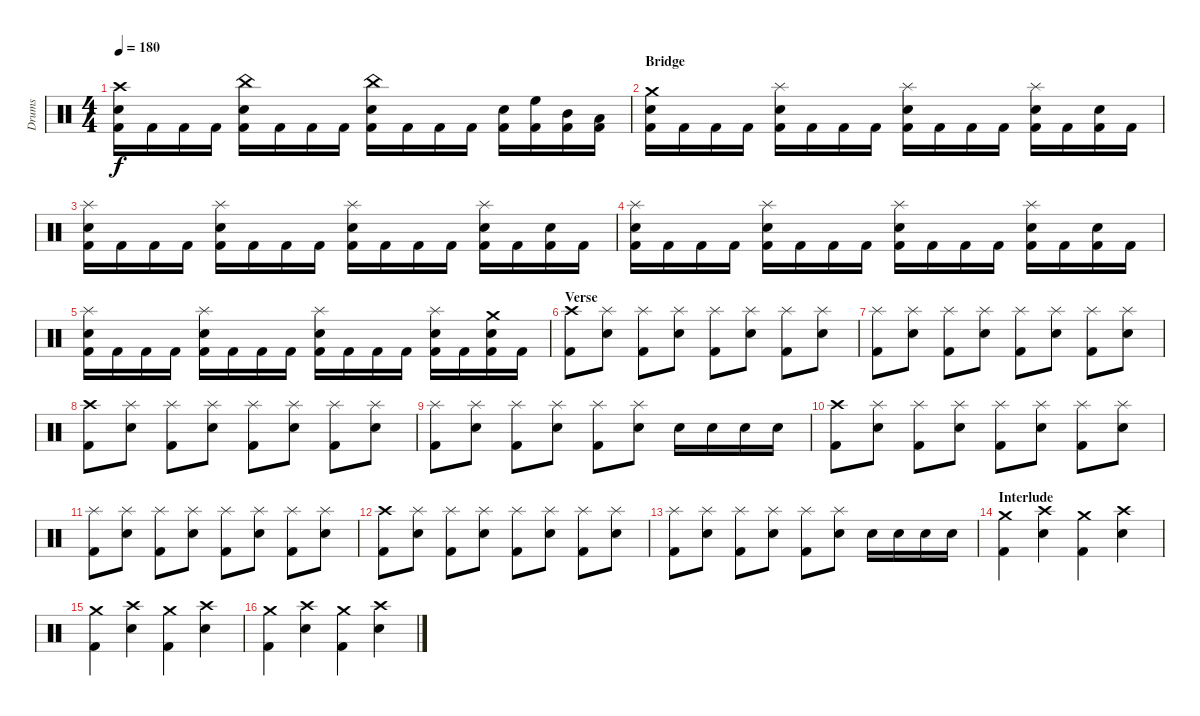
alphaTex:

\track ("Drums" "Drums") {instrument percussion}
\staff {score}
\articulation defaults
\ts (4 4)
\tempo 180
\clef neutral
\ks c
("Crash high (hit)" "Electric Snare (hit)" "Kick (hit) 2").16{dy f} "Kick (hit) 2".16 "Kick (hit) 2".16 "Kick (hit) 2".16 ("China (hit)" "Electric Snare (hit)" "Kick (hit) 2").16 "Kick (hit) 2".16 "Kick (hit) 2".16 "Kick (hit) 2".16 ("China (hit)" "Electric Snare (hit)" "Kick (hit) 2").16 "Kick (hit) 2".16 "Kick (hit) 2".16 "Kick (hit) 2".16 ("Electric Snare (hit)" "Kick (hit) 2").16 ("High Floor Tom (hit)" "Kick (hit) 2").16 ("Mid Tom (hit)" "Kick (hit) 2").16 ("Low Tom (hit)" "Kick (hit) 2").16 |
\section ("" "Bridge")
("Crash medium (hit)" "Electric Snare (hit)" "Kick (hit) 2").16 "Kick (hit) 2".16 "Kick (hit) 2".16 "Kick (hit) 2".16 ("Splash (hit)" "Electric Snare (hit)" "Kick (hit) 2").16 "Kick (hit) 2".16 "Kick (hit) 2".16 "Kick (hit) 2".16 ("Splash (hit)" "Electric Snare (hit)" "Kick (hit) 2").16 "Kick (hit) 2".16 "Kick (hit) 2".16 "Kick (hit) 2".16 ("Splash (hit)" "Electric Snare (hit)" "Kick (hit) 2").16 "Kick (hit) 2".16 ("Electric Snare (hit)" "Kick (hit) 2").16 "Kick (hit) 2".16 |
("Splash (hit)" "Electric Snare (hit)" "Kick (hit) 2").16 "Kick (hit) 2".16 "Kick (hit) 2".16 "Kick (hit) 2".16 ("Splash (hit)" "Electric Snare (hit)" "Kick (hit) 2").16 "Kick (hit) 2".16 "Kick (hit) 2".16 "Kick (hit) 2".16 ("Splash (hit)" "Electric Snare (hit)" "Kick (hit) 2").16 "Kick (hit) 2".16 "Kick (hit) 2".16 "Kick (hit) 2".16 ("Splash (hit)" "Electric Snare (hit)" "Kick (hit) 2").16 "Kick (hit) 2".16 ("Electric Snare (hit)" "Kick (hit) 2").16 "Kick (hit) 2".16 |
("Splash (hit)" "Electric Snare (hit)" "Kick (hit) 2").16 "Kick (hit) 2".16 "Kick (hit) 2".16 "Kick (hit) 2".16 ("Splash (hit)" "Electric Snare (hit)" "Kick (hit) 2").16 "Kick (hit) 2".16 "Kick (hit) 2".16 "Kick (hit) 2".16 ("Splash (hit)" "Electric Snare (hit)" "Kick (hit) 2").16 "Kick (hit) 2".16 "Kick (hit) 2".16 "Kick (hit) 2".16 ("Splash (hit)" "Electric Snare (hit)" "Kick (hit) 2").16 "Kick (hit) 2".16 ("Electric Snare (hit)" "Kick (hit) 2").16 "Kick (hit) 2".16 |
("Splash (hit)" "Electric Snare (hit)" "Kick (hit) 2").16 "Kick (hit) 2".16 "Kick (hit) 2".16 "Kick (hit) 2".16 ("Splash (hit)" "Electric Snare (hit)" "Kick (hit) 2").16 "Kick (hit) 2".16 "Kick (hit) 2".16 "Kick (hit) 2".16 ("Splash (hit)" "Electric Snare (hit)" "Kick (hit) 2").16 "Kick (hit) 2".16 "Kick (hit) 2".16 "Kick (hit) 2".16 ("Splash (hit)" "Electric Snare (hit)" "Kick (hit) 2").16 "Kick (hit) 2".16 ("Crash medium (hit)" "Electric Snare (hit)" "Kick (hit) 2").16 "Kick (hit) 2".16 |
\section ("" "Verse")
("Crash high (hit)" "Kick (hit) 2").8 ("Splash (hit)" "Electric Snare (hit)").8 ("Splash (hit)" "Kick (hit) 2").8 ("Splash (hit)" "Electric Snare (hit)").8 ("Splash (hit)" "Kick (hit) 2").8 ("Splash (hit)" "Electric Snare (hit)").8 ("Splash (hit)" "Kick (hit) 2").8 ("Splash (hit)" "Electric Snare (hit)").8 |
("Splash (hit)" "Kick (hit) 2").8 ("Splash (hit)" "Electric Snare (hit)").8 ("Splash (hit)" "Kick (hit) 2").8 ("Splash (hit)" "Electric Snare (hit)").8 ("Splash (hit)" "Kick (hit) 2").8 ("Splash (hit)" "Electric Snare (hit)").8 ("Splash (hit)" "Kick (hit) 2").8 ("Splash (hit)" "Electric Snare (hit)").8 |
("Crash high (hit)" "Kick (hit) 2").8 ("Splash (hit)" "Electric Snare (hit)").8 ("Splash (hit)" "Kick (hit) 2").8 ("Splash (hit)" "Electric Snare (hit)").8 ("Splash (hit)" "Kick (hit) 2").8 ("Splash (hit)" "Electric Snare (hit)").8 ("Splash (hit)" "Kick (hit) 2").8 ("Splash (hit)" "Electric Snare (hit)").8 |
("Splash (hit)" "Kick (hit) 2").8 ("Splash (hit)" "Electric Snare (hit)").8 ("Splash (hit)" "Kick (hit) 2").8 ("Splash (hit)" "Electric Snare (hit)").8 ("Splash (hit)" "Kick (hit) 2").8 ("Splash (hit)" "Electric Snare (hit)").8 "Electric Snare (hit)".16 "Electric Snare (hit)".16 "Electric Snare (hit)".16 "Electric Snare (hit)".16 |
("Crash high (hit)" "Kick (hit) 2").8 ("Splash (hit)" "Electric Snare (hit)").8 ("Splash (hit)" "Kick (hit) 2").8 ("Splash (hit)" "Electric Snare (hit)").8 ("Splash (hit)" "Kick (hit) 2").8 ("Splash (hit)" "Electric Snare (hit)").8 ("Splash (hit)" "Kick (hit) 2").8 ("Splash (hit)" "Electric Snare (hit)").8 |
("Splash (hit)" "Kick (hit) 2").8 ("Splash (hit)" "Electric Snare (hit)").8 ("Splash (hit)" "Kick (hit) 2").8 ("Splash (hit)" "Electric Snare (hit)").8 ("Splash (hit)" "Kick (hit) 2").8 ("Splash (hit)" "Electric Snare (hit)").8 ("Splash (hit)" "Kick (hit) 2").8 ("Splash (hit)" "Electric Snare (hit)").8 |
("Crash high (hit)" "Kick (hit) 2").8 ("Splash (hit)" "Electric Snare (hit)").8 ("Splash (hit)" "Kick (hit) 2").8 ("Splash (hit)" "Electric Snare (hit)").8 ("Splash (hit)" "Kick (hit) 2").8 ("Splash (hit)" "Electric Snare (hit)").8 ("Splash (hit)" "Kick (hit) 2").8 ("Splash (hit)" "Electric Snare (hit)").8 |
("Splash (hit)" "Kick (hit) 2").8 ("Splash (hit)" "Electric Snare (hit)").8 ("Splash (hit)" "Kick (hit) 2").8 ("Splash (hit)" "Electric Snare (hit)").8 ("Splash (hit)" "Kick (hit) 2").8 ("Splash (hit)" "Electric Snare (hit)").8 "Electric Snare (hit)".16 "Electric Snare (hit)".16 "Electric Snare (hit)".16 "Electric Snare (hit)".16 |
\section ("" "Interlude")
("Crash medium (hit)" "Kick (hit) 2").4 ("Crash high (hit)" "Electric Snare (hit)").4 ("Crash medium (hit)" "Kick (hit) 2").4 ("Crash high (hit)" "Electric Snare (hit)").4 |
("Crash medium (hit)" "Kick (hit) 2").4 ("Crash high (hit)" "Electric Snare (hit)").4 ("Crash medium (hit)" "Kick (hit) 2").4 ("Crash high (hit)" "Electric Snare (hit)").4 |
("Crash medium (hit)" "Kick (hit) 2").4 ("Crash high (hit)" "Electric Snare (hit)").4 ("Crash medium (hit)" "Kick (hit) 2").4 ("Crash high (hit)" "Electric Snare (hit)").4
